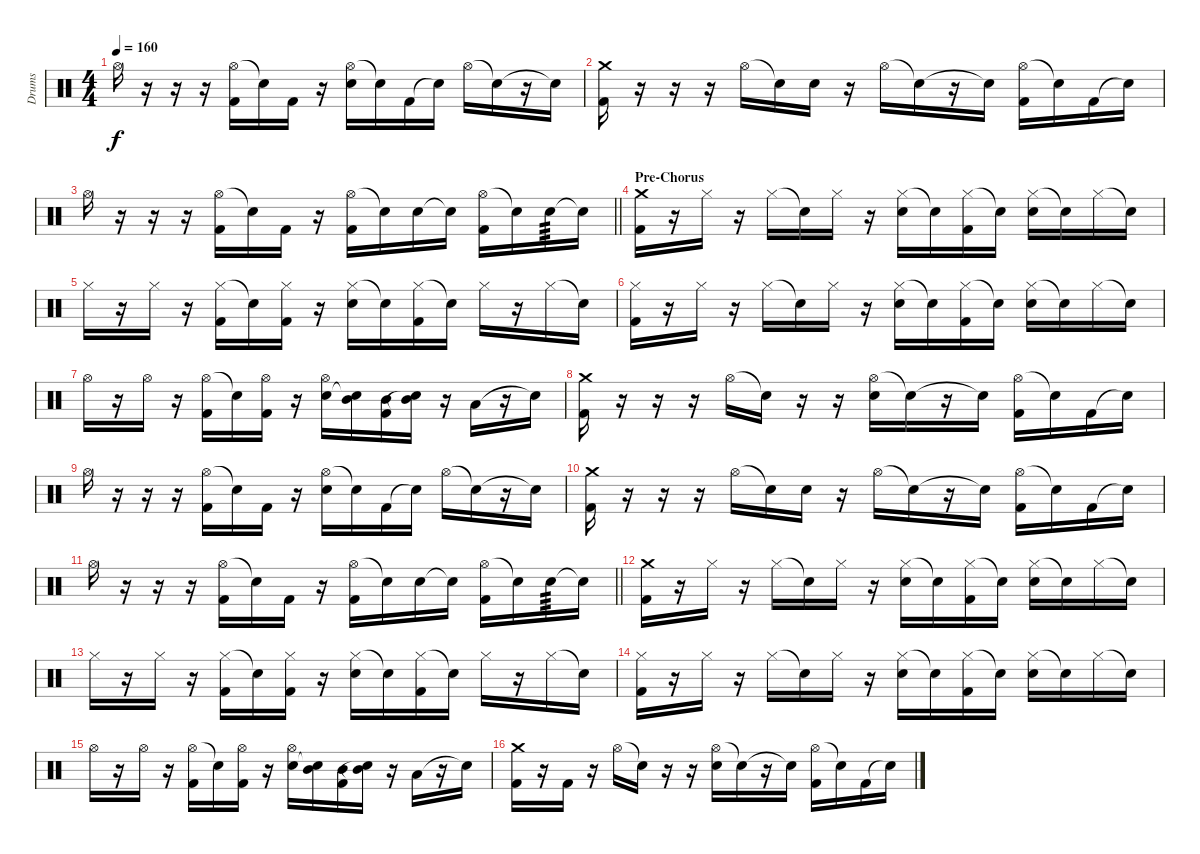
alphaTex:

\track ("Drums" "Drums") {instrument percussion}
\staff {score}
\articulation defaults
\ts (4 4)
\tempo 160
\clef neutral
\ks c "Hi-Hat (open)".16{dy f}
r.16 r.16 r.16 ("Hi-Hat (open)" "Kick (hit) 2").16 "Snare (hit)"{t}.16 "Kick (hit) 2".16 r.16 ("Hi-Hat (open)" "Snare (hit) 2").16 "Snare (hit)"{t}.16 "Kick (hit) 2".16 "Snare (hit)"{t}.16 "Hi-Hat (open)".16 "Snare (hit)"{t}.16 r.16 "Snare (hit)"{t}.16 |
("Crash medium (hit)" "Kick (hit) 2").16 r.16 r.16 r.16 "Hi-Hat (open)".16 "Snare (hit)"{t}.16 "Snare (hit) 2".16 r.16 "Hi-Hat (open)".16 "Snare (hit)"{t}.16 r.16 "Snare (hit)"{t}.16 ("Hi-Hat (open)" "Kick (hit) 2").16 "Snare (hit)"{t}.16 "Kick (hit) 2".16 "Snare (hit)"{t}.16 |
\barLineRight lightlight "Hi-Hat (open)".16
r.16 r.16 r.16 ("Hi-Hat (open)" "Kick (hit) 2").16 "Snare (hit)"{t}.16 "Kick (hit) 2".16 r.16 ("Hi-Hat (open)" "Kick (hit) 2").16 "Snare (hit)"{t}.16 "Snare (hit) 2".16 "Snare (hit)"{t}.16 ("Hi-Hat (open)" "Kick (hit) 2").16 "Snare (hit)"{t}.16 "Snare (hit) 2".16{tp 3} "Snare (hit)"{t}.16 |
\section ("" "Pre-Chorus")
("Crash medium (hit)" "Kick (hit) 2").16 r.16 "Hi-Hat (closed)".16 r.16 "Hi-Hat (closed)".16 "Snare (hit)"{t}.16 "Hi-Hat (closed)".16 r.16 ("Hi-Hat (closed)" "Snare (hit) 2").16 "Snare (hit)"{t}.16 ("Hi-Hat (closed)" "Kick (hit) 2").16 "Snare (hit)"{t}.16 ("Hi-Hat (closed)" "Snare (hit) 2").16 "Snare (hit)"{t}.16 "Hi-Hat (closed)".16 "Snare (hit)"{t}.16 |
"Hi-Hat (closed)".16 r.16 "Hi-Hat (closed)".16 r.16 ("Hi-Hat (closed)" "Kick (hit) 2").16 "Snare (hit)"{t}.16 ("Hi-Hat (closed)" "Kick (hit) 2").16 r.16 ("Hi-Hat (closed)" "Snare (hit) 2").16 "Snare (hit)"{t}.16 ("Hi-Hat (closed)" "Kick (hit) 2").16 "Snare (hit)"{t}.16 "Hi-Hat (closed)".16 r.16 "Hi-Hat (closed)".16 "Snare (hit)"{t}.16 |
("Hi-Hat (closed)" "Kick (hit) 2").16 r.16 "Hi-Hat (closed)".16 r.16 "Hi-Hat (closed)".16 "Snare (hit)"{t}.16 "Hi-Hat (closed)".16 r.16 ("Hi-Hat (closed)" "Snare (hit) 2").16 "Snare (hit)"{t}.16 ("Hi-Hat (closed)" "Kick (hit) 2").16 "Snare (hit)"{t}.16 ("Hi-Hat (closed)" "Snare (hit) 2").16 "Snare (hit)"{t}.16 "Hi-Hat (closed)".16 "Snare (hit)"{t}.16 |
"Hi-Hat (open)".16 r.16 "Hi-Hat (open)".16 r.16 ("Hi-Hat (open)" "Kick (hit) 2").16 "Snare (hit)"{t}.16 ("Hi-Hat (open)" "Kick (hit) 2").16 r.16 ("Hi-Hat (open)" "Snare (hit) 2").16 ("Mid Tom (hit)" "Snare (hit)"{t}).16 ("Mid Tom (hit)" "Kick (hit) 2").16 ("Mid Tom (hit)" "Snare (hit)"{t}).16 r.16 "Low Tom (hit)".16 r.16 "Snare (hit)"{t}.16 |
("Crash medium (hit)" "Kick (hit) 2").16 r.16 r.16 r.16 "Hi-Hat (open)".16 "Snare (hit)"{t}.16 r.16 r.16 ("Hi-Hat (open)" "Snare (hit) 2").16 "Snare (hit)"{t}.16 r.16 "Snare (hit)"{t}.16 ("Hi-Hat (open)" "Kick (hit) 2").16 "Snare (hit)"{t}.16 "Kick (hit) 2".16 "Snare (hit)"{t}.16 |
"Hi-Hat (open)".16 r.16 r.16 r.16 ("Hi-Hat (open)" "Kick (hit) 2").16 "Snare (hit)"{t}.16 "Kick (hit) 2".16 r.16 ("Hi-Hat (open)" "Snare (hit) 2").16 "Snare (hit)"{t}.16 "Kick (hit) 2".16 "Snare (hit)"{t}.16 "Hi-Hat (open)".16 "Snare (hit)"{t}.16 r.16 "Snare (hit)"{t}.16 |
("Crash medium (hit)" "Kick (hit) 2").16 r.16 r.16 r.16 "Hi-Hat (open)".16 "Snare (hit)"{t}.16 "Snare (hit) 2".16 r.16 "Hi-Hat (open)".16 "Snare (hit)"{t}.16 r.16 "Snare (hit)"{t}.16 ("Hi-Hat (open)" "Kick (hit) 2").16 "Snare (hit)"{t}.16 "Kick (hit) 2".16 "Snare (hit)"{t}.16 |
\barLineRight lightlight "Hi-Hat (open)".16
r.16 r.16 r.16 ("Hi-Hat (open)" "Kick (hit) 2").16 "Snare (hit)"{t}.16 "Kick (hit) 2".16 r.16 ("Hi-Hat (open)" "Kick (hit) 2").16 "Snare (hit)"{t}.16 "Snare (hit) 2".16 "Snare (hit)"{t}.16 ("Hi-Hat (open)" "Kick (hit) 2").16 "Snare (hit)"{t}.16 "Snare (hit) 2".16{tp 3} "Snare (hit)"{t}.16 |
("Crash medium (hit)" "Kick (hit) 2").16 r.16 "Hi-Hat (closed)".16 r.16 "Hi-Hat (closed)".16 "Snare (hit)"{t}.16 "Hi-Hat (closed)".16 r.16 ("Hi-Hat (closed)" "Snare (hit) 2").16 "Snare (hit)"{t}.16 ("Hi-Hat (closed)" "Kick (hit) 2").16 "Snare (hit)"{t}.16 ("Hi-Hat (closed)" "Snare (hit) 2").16 "Snare (hit)"{t}.16 "Hi-Hat (closed)".16 "Snare (hit)"{t}.16 |
"Hi-Hat (closed)".16 r.16 "Hi-Hat (closed)".16 r.16 ("Hi-Hat (closed)" "Kick (hit) 2").16 "Snare (hit)"{t}.16 ("Hi-Hat (closed)" "Kick (hit) 2").16 r.16 ("Hi-Hat (closed)" "Snare (hit) 2").16 "Snare (hit)"{t}.16 ("Hi-Hat (closed)" "Kick (hit) 2").16 "Snare (hit)"{t}.16 "Hi-Hat (closed)".16 r.16 "Hi-Hat (closed)".16 "Snare (hit)"{t}.16 |
("Hi-Hat (closed)" "Kick (hit) 2").16 r.16 "Hi-Hat (closed)".16 r.16 "Hi-Hat (closed)".16 "Snare (hit)"{t}.16 "Hi-Hat (closed)".16 r.16 ("Hi-Hat (closed)" "Snare (hit) 2").16 "Snare (hit)"{t}.16 ("Hi-Hat (closed)" "Kick (hit) 2").16 "Snare (hit)"{t}.16 ("Hi-Hat (closed)" "Snare (hit) 2").16 "Snare (hit)"{t}.16 "Hi-Hat (closed)".16 "Snare (hit)"{t}.16 |
"Hi-Hat (open)".16 r.16 "Hi-Hat (open)".16 r.16 ("Hi-Hat (open)" "Kick (hit) 2").16 "Snare (hit)"{t}.16 ("Hi-Hat (open)" "Kick (hit) 2").16 r.16 ("Hi-Hat (open)" "Snare (hit) 2").16 ("Mid Tom (hit)" "Snare (hit)"{t}).16 ("Mid Tom (hit)" "Kick (hit) 2").16 ("Mid Tom (hit)" "Snare (hit)"{t}).16 r.16 "Low Tom (hit)".16 r.16 "Snare (hit)"{t}.16 |
("Crash medium (hit)" "Kick (hit) 2").16 r.16 "Kick (hit) 2".16 r.16 "Hi-Hat (open)".16 "Snare (hit)"{t}.16 r.16 r.16 ("Hi-Hat (open)" "Snare (hit) 2").16 "Snare (hit)"{t}.16 r.16 "Snare (hit)"{t}.16 ("Hi-Hat (open)" "Kick (hit) 2").16 "Snare (hit)"{t}.16 "Kick (hit) 2".16 "Snare (hit)"{t}.16
